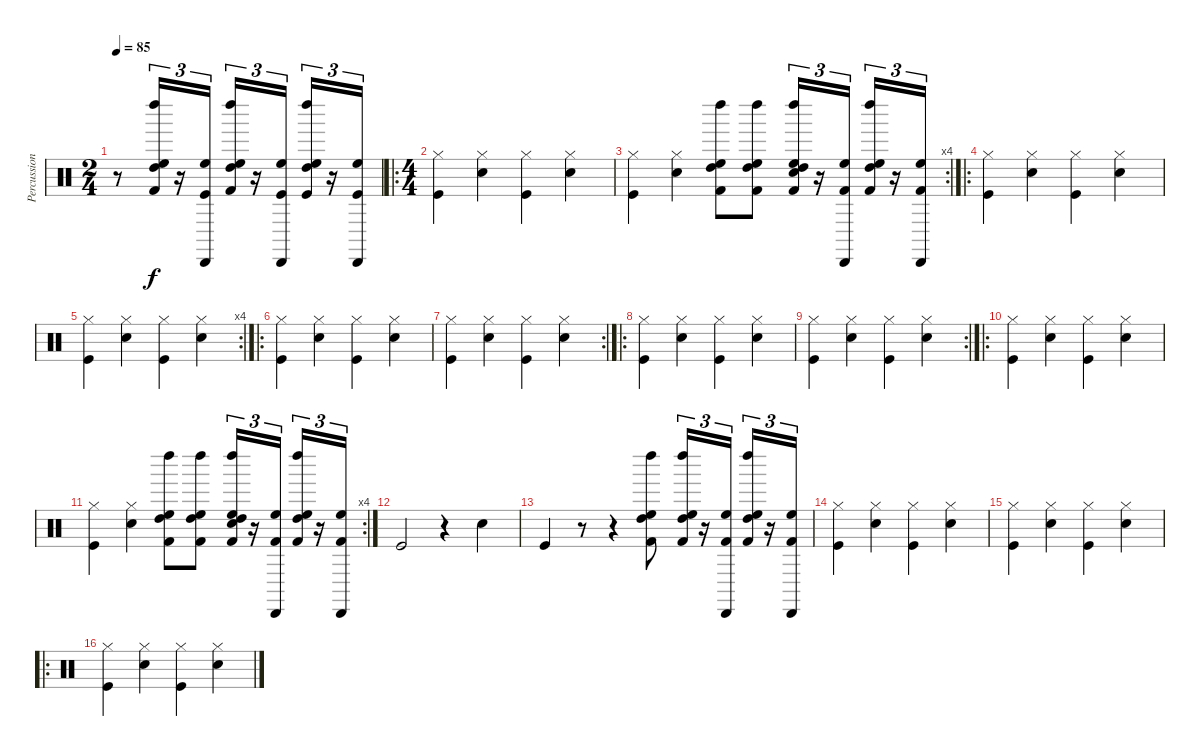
\track ("Percussion" "Percussion") {instrument percussion}
\staff {score}
\articulation defaults
\ts (2 4)
\tempo 85
\clef neutral
\ks c
r.8{dy f} ("High Floor Tom (hit)" "High Tom (hit)" "Left Maraca (hit)" "Kick (hit) 2").16{tu (3 2)} r.16{tu (3 2)} ("High Floor Tom (hit)" "Cabasa (hit)" "Kick (hit)").16{tu (3 2)} ("High Floor Tom (hit)" "High Tom (hit)" "Left Maraca (hit)" "Kick (hit) 2").16{tu (3 2)} r.16{tu (3 2)} ("High Floor Tom (hit)" "Cabasa (hit)" "Kick (hit)").16{tu (3 2)} ("High Floor Tom (hit)" "High Tom (hit)" "Left Maraca (hit)" "Kick (hit)").16{tu (3 2)} r.16{tu (3 2)} ("High Floor Tom (hit)" "Cabasa (hit)" "Kick (hit)").16{tu (3 2)} |
\ro
\ts (4 4)
("Hi-Hat (closed)" "Kick (hit)").4 ("Hi-Hat (closed)" "Snare (hit) 2").4 ("Hi-Hat (closed)" "Kick (hit)").4 ("Hi-Hat (closed)" "Snare (hit) 2").4 |
\rc 4
("Hi-Hat (closed)" "Kick (hit)").4 ("Hi-Hat (closed)" "Snare (hit) 2").4 ("High Floor Tom (hit)" "High Tom (hit)" "Left Maraca (hit)" "Kick (hit) 2").8 ("High Floor Tom (hit)" "High Tom (hit)" "Left Maraca (hit)" "Kick (hit) 2").8 ("High Floor Tom (hit)" "High Tom (hit)" "Left Maraca (hit)" "Snare (hit) 2" "Kick (hit) 2").16{tu (3 2)} r.16{tu (3 2)} ("High Floor Tom (hit)" "Cabasa (hit)" "Kick (hit) 2").16{tu (3 2)} ("High Floor Tom (hit)" "High Tom (hit)" "Left Maraca (hit)" "Kick (hit) 2").16{tu (3 2)} r.16{tu (3 2)} ("High Floor Tom (hit)" "Cabasa (hit)" "Kick (hit) 2").16{tu (3 2)} |
\ro
("Hi-Hat (closed)" "Kick (hit)").4 ("Hi-Hat (closed)" "Snare (hit) 2").4 ("Hi-Hat (closed)" "Kick (hit)").4 ("Hi-Hat (closed)" "Snare (hit) 2").4 |
\rc 4
("Hi-Hat (closed)" "Kick (hit)").4 ("Hi-Hat (closed)" "Snare (hit) 2").4 ("Hi-Hat (closed)" "Kick (hit)").4 ("Hi-Hat (closed)" "Snare (hit) 2").4 |
\ro
("Hi-Hat (closed)" "Kick (hit)").4 ("Hi-Hat (closed)" "Snare (hit) 2").4 ("Hi-Hat (closed)" "Kick (hit)").4 ("Hi-Hat (closed)" "Snare (hit) 2").4 |
\rc 2
("Hi-Hat (closed)" "Kick (hit)").4 ("Hi-Hat (closed)" "Snare (hit) 2").4 ("Hi-Hat (closed)" "Kick (hit)").4 ("Hi-Hat (closed)" "Snare (hit) 2").4 |
\ro
("Hi-Hat (closed)" "Kick (hit)").4 ("Hi-Hat (closed)" "Snare (hit) 2").4 ("Hi-Hat (closed)" "Kick (hit)").4 ("Hi-Hat (closed)" "Snare (hit) 2").4 |
\rc 2
("Hi-Hat (closed)" "Kick (hit)").4 ("Hi-Hat (closed)" "Snare (hit) 2").4 ("Hi-Hat (closed)" "Kick (hit)").4 ("Hi-Hat (closed)" "Snare (hit) 2").4 |
\ro
("Hi-Hat (closed)" "Kick (hit)").4 ("Hi-Hat (closed)" "Snare (hit) 2").4 ("Hi-Hat (closed)" "Kick (hit)").4 ("Hi-Hat (closed)" "Snare (hit) 2").4 |
\rc 4
("Hi-Hat (closed)" "Kick (hit)").4 ("Hi-Hat (closed)" "Snare (hit) 2").4 ("High Floor Tom (hit)" "High Tom (hit)" "Left Maraca (hit)" "Kick (hit) 2").8 ("High Floor Tom (hit)" "High Tom (hit)" "Left Maraca (hit)" "Kick (hit) 2").8 ("High Floor Tom (hit)" "High Tom (hit)" "Left Maraca (hit)" "Snare (hit) 2" "Kick (hit) 2").16{tu (3 2)} r.16{tu (3 2)} ("High Floor Tom (hit)" "Cabasa (hit)" "Kick (hit) 2").16{tu (3 2)} ("High Floor Tom (hit)" "High Tom (hit)" "Left Maraca (hit)" "Kick (hit) 2").16{tu (3 2)} r.16{tu (3 2)} ("High Floor Tom (hit)" "Cabasa (hit)" "Kick (hit) 2").16{tu (3 2)} |
"Kick (hit)".2 r.4 "Snare (hit) 2".4 |
"Kick (hit)".4 r.8 r.4 ("High Floor Tom (hit)" "High Tom (hit)" "Left Maraca (hit)" "Kick (hit) 2").8 ("High Floor Tom (hit)" "High Tom (hit)" "Left Maraca (hit)" "Kick (hit) 2").16{tu (3 2)} r.16{tu (3 2)} ("High Floor Tom (hit)" "Cabasa (hit)" "Kick (hit) 2").16{tu (3 2)} ("High Floor Tom (hit)" "High Tom (hit)" "Left Maraca (hit)" "Kick (hit) 2").16{tu (3 2)} r.16{tu (3 2)} ("High Floor Tom (hit)" "Cabasa (hit)" "Kick (hit) 2").16{tu (3 2)} |
("Hi-Hat (closed)" "Kick (hit)").4 ("Hi-Hat (closed)" "Snare (hit) 2").4 ("Hi-Hat (closed)" "Kick (hit)").4 ("Hi-Hat (closed)" "Snare (hit) 2").4 |
("Hi-Hat (closed)" "Kick (hit)").4 ("Hi-Hat (closed)" "Snare (hit) 2").4 ("Hi-Hat (closed)" "Kick (hit)").4 ("Hi-Hat (closed)" "Snare (hit) 2").4 |
\ro
("Hi-Hat (closed)" "Kick (hit)").4 ("Hi-Hat (closed)" "Snare (hit) 2").4 ("Hi-Hat (closed)" "Kick (hit)").4 ("Hi-Hat (closed)" "Snare (hit) 2").4
